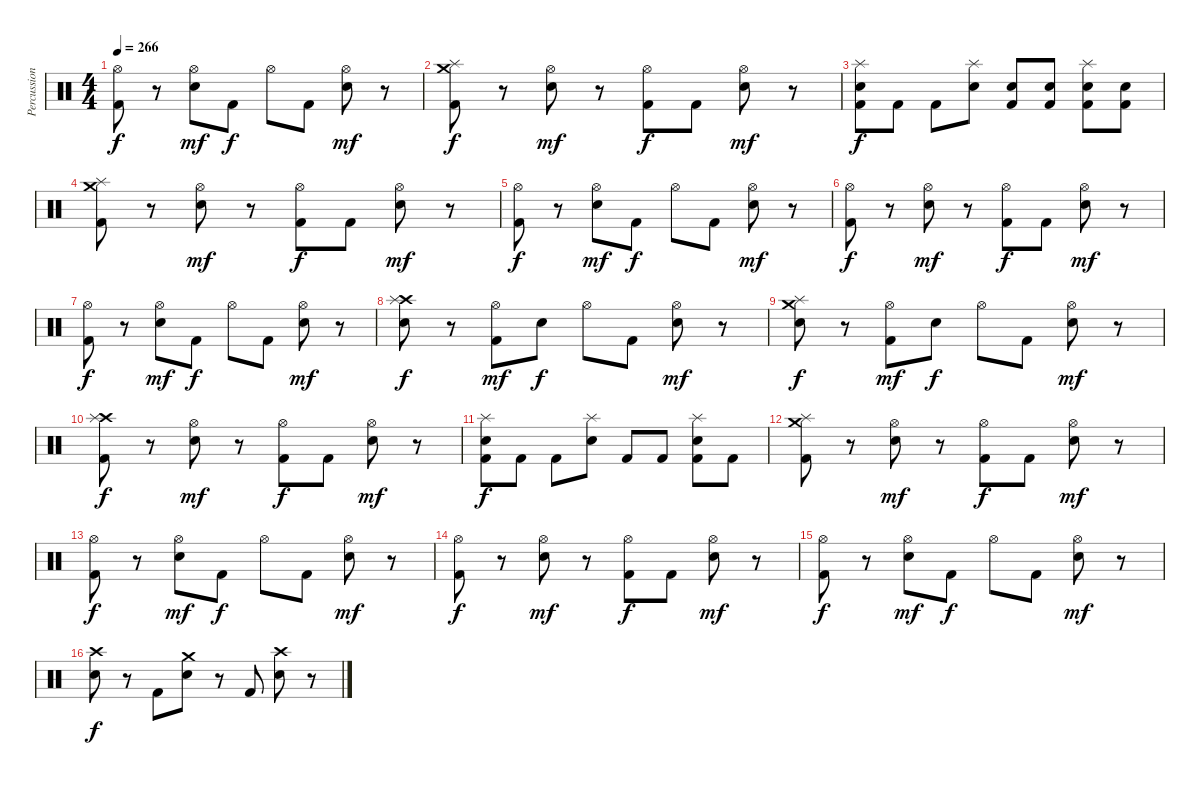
\track ("Percussion" "Percussion") {instrument percussion}
\staff {score}
\articulation defaults
\ts (4 4)
\tempo 266
\clef neutral
\ks c
("Kick (hit) 2" "Hi-Hat (open)").8{dy f} r.8 ("Snare (hit) 2" "Hi-Hat (open)").8{dy mf} "Kick (hit) 2".8{dy f} "Hi-Hat (open)".8 "Kick (hit) 2".8 ("Snare (hit) 2" "Hi-Hat (open)").8{dy mf} r.8 |
("Kick (hit) 2" "Splash (hit)" "Crash medium (hit)").8{dy f} r.8 ("Snare (hit) 2" "Hi-Hat (open)").8{dy mf} r.8 ("Kick (hit) 2" "Hi-Hat (open)").8{dy f} "Kick (hit) 2".8 ("Snare (hit) 2" "Hi-Hat (open)").8{dy mf} r.8 |
("Snare (hit) 2" "Splash (hit)" "Kick (hit) 2").8{dy f} "Kick (hit) 2".8 "Kick (hit) 2".8 ("Snare (hit) 2" "Splash (hit)").8 ("Snare (hit) 2" "Kick (hit) 2").8 ("Snare (hit) 2" "Kick (hit) 2").8 ("Snare (hit) 2" "Kick (hit) 2" "Splash (hit)").8 ("Snare (hit) 2" "Kick (hit) 2").8 |
("Crash medium (hit)" "Splash (hit)" "Kick (hit) 2").8 r.8 ("Snare (hit) 2" "Hi-Hat (open)").8{dy mf} r.8 ("Kick (hit) 2" "Hi-Hat (open)").8{dy f} "Kick (hit) 2".8 ("Snare (hit) 2" "Hi-Hat (open)").8{dy mf} r.8 |
("Kick (hit) 2" "Hi-Hat (open)").8{dy f} r.8 ("Snare (hit) 2" "Hi-Hat (open)").8{dy mf} "Kick (hit) 2".8{dy f} "Hi-Hat (open)".8 "Kick (hit) 2".8 ("Snare (hit) 2" "Hi-Hat (open)").8{dy mf} r.8 |
("Hi-Hat (open)" "Kick (hit) 2").8{dy f} r.8 ("Snare (hit) 2" "Hi-Hat (open)").8{dy mf} r.8 ("Kick (hit) 2" "Hi-Hat (open)").8{dy f} "Kick (hit) 2".8 ("Snare (hit) 2" "Hi-Hat (open)").8{dy mf} r.8 |
("Kick (hit) 2" "Hi-Hat (open)").8{dy f} r.8 ("Snare (hit) 2" "Hi-Hat (open)").8{dy mf} "Kick (hit) 2".8{dy f} "Hi-Hat (open)".8 "Kick (hit) 2".8 ("Snare (hit) 2" "Hi-Hat (open)").8{dy mf} r.8 |
("Snare (hit) 2" "Crash high (hit)" "Splash (hit)").8{dy f} r.8 ("Kick (hit) 2" "Hi-Hat (open)").8{dy mf} "Snare (hit) 2".8{dy f} "Hi-Hat (open)".8 "Kick (hit) 2".8 ("Snare (hit) 2" "Hi-Hat (open)").8{dy mf} r.8 |
("Snare (hit) 2" "Splash (hit)" "Crash medium (hit)").8{dy f} r.8 ("Kick (hit) 2" "Hi-Hat (open)").8{dy mf} "Snare (hit) 2".8{dy f} "Hi-Hat (open)".8 "Kick (hit) 2".8 ("Snare (hit) 2" "Hi-Hat (open)").8{dy mf} r.8 |
("Crash high (hit)" "Splash (hit)" "Kick (hit) 2").8{dy f} r.8 ("Snare (hit) 2" "Hi-Hat (open)").8{dy mf} r.8 ("Kick (hit) 2" "Hi-Hat (open)").8{dy f} "Kick (hit) 2".8 ("Snare (hit) 2" "Hi-Hat (open)").8{dy mf} r.8 |
("Snare (hit) 2" "Kick (hit) 2" "Splash (hit)").8{dy f} "Kick (hit) 2".8 "Kick (hit) 2".8 ("Snare (hit) 2" "Splash (hit)").8 "Kick (hit) 2".8 "Kick (hit) 2".8 ("Snare (hit) 2" "Kick (hit) 2" "Splash (hit)").8 "Kick (hit) 2".8 |
("Crash medium (hit)" "Splash (hit)" "Kick (hit) 2").8 r.8 ("Snare (hit) 2" "Hi-Hat (open)").8{dy mf} r.8 ("Kick (hit) 2" "Hi-Hat (open)").8{dy f} "Kick (hit) 2".8 ("Snare (hit) 2" "Hi-Hat (open)").8{dy mf} r.8 |
("Kick (hit) 2" "Hi-Hat (open)").8{dy f} r.8 ("Snare (hit) 2" "Hi-Hat (open)").8{dy mf} "Kick (hit) 2".8{dy f} "Hi-Hat (open)".8 "Kick (hit) 2".8 ("Snare (hit) 2" "Hi-Hat (open)").8{dy mf} r.8 |
("Hi-Hat (open)" "Kick (hit) 2").8{dy f} r.8 ("Snare (hit) 2" "Hi-Hat (open)").8{dy mf} r.8 ("Kick (hit) 2" "Hi-Hat (open)").8{dy f} "Kick (hit) 2".8 ("Snare (hit) 2" "Hi-Hat (open)").8{dy mf} r.8 |
("Kick (hit) 2" "Hi-Hat (open)").8{dy f} r.8 ("Snare (hit) 2" "Hi-Hat (open)").8{dy mf} "Kick (hit) 2".8{dy f} "Hi-Hat (open)".8 "Kick (hit) 2".8 ("Snare (hit) 2" "Hi-Hat (open)").8{dy mf} r.8 |
("Crash high (hit)" "Snare (hit) 2").8{dy f} r.8 "Kick (hit) 2".8 ("Crash medium (hit)" "Snare (hit) 2").8 r.8 "Kick (hit) 2".8 ("Crash high (hit)" "Snare (hit) 2").8 r.8
